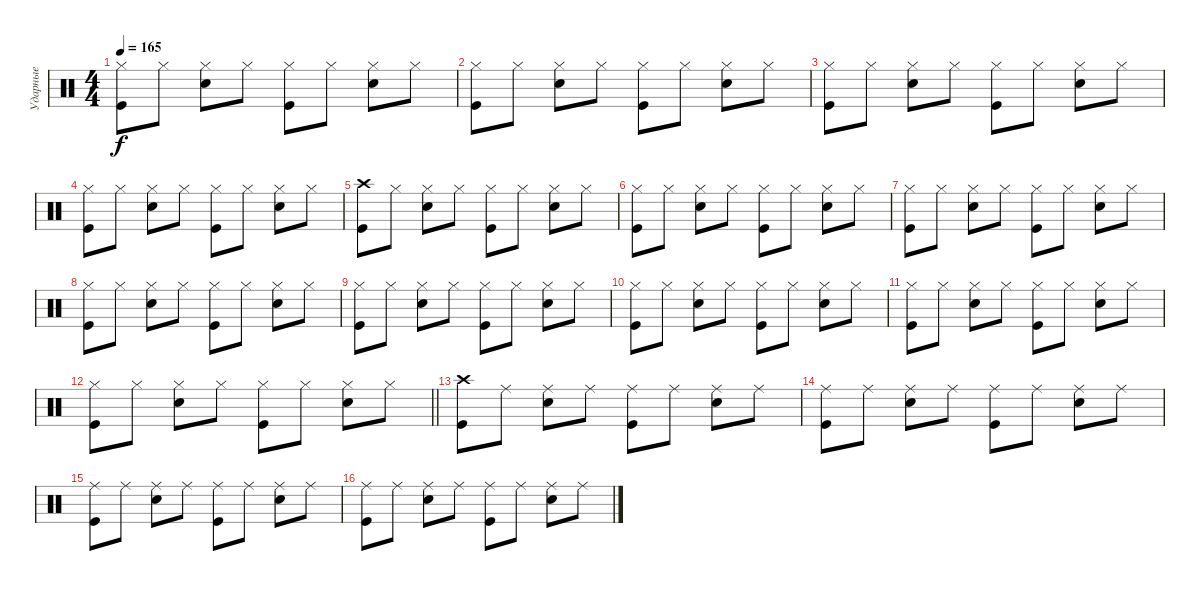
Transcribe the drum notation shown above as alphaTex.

\track ("Ударные" "Ударные") {instrument percussion}
\staff {score}
\articulation defaults
\ts (4 4)
\tempo 165
\clef neutral
\ks c
("Hi-Hat (closed)" "Kick (hit)").8{dy f} "Hi-Hat (closed)".8 ("Hi-Hat (closed)" "Snare (hit) 2").8 "Hi-Hat (closed)".8 ("Hi-Hat (closed)" "Kick (hit)").8 "Hi-Hat (closed)".8 ("Hi-Hat (closed)" "Snare (hit) 2").8 "Hi-Hat (closed)".8 |
("Hi-Hat (closed)" "Kick (hit)").8 "Hi-Hat (closed)".8 ("Hi-Hat (closed)" "Snare (hit) 2").8 "Hi-Hat (closed)".8 ("Hi-Hat (closed)" "Kick (hit)").8 "Hi-Hat (closed)".8 ("Hi-Hat (closed)" "Snare (hit) 2").8 "Hi-Hat (closed)".8 |
("Hi-Hat (closed)" "Kick (hit)").8 "Hi-Hat (closed)".8 ("Hi-Hat (closed)" "Snare (hit) 2").8 "Hi-Hat (closed)".8 ("Hi-Hat (closed)" "Kick (hit)").8 "Hi-Hat (closed)".8 ("Hi-Hat (closed)" "Snare (hit) 2").8 "Hi-Hat (closed)".8 |
("Hi-Hat (closed)" "Kick (hit)").8 "Hi-Hat (closed)".8 ("Hi-Hat (closed)" "Snare (hit) 2").8 "Hi-Hat (closed)".8 ("Hi-Hat (closed)" "Kick (hit)").8 "Hi-Hat (closed)".8 ("Hi-Hat (closed)" "Snare (hit) 2").8 "Hi-Hat (closed)".8 |
("Crash high (hit)" "Kick (hit)").8 "Hi-Hat (closed)".8 ("Hi-Hat (closed)" "Snare (hit) 2").8 "Hi-Hat (closed)".8 ("Hi-Hat (closed)" "Kick (hit)").8 "Hi-Hat (closed)".8 ("Hi-Hat (closed)" "Snare (hit) 2").8 "Hi-Hat (closed)".8 |
("Hi-Hat (closed)" "Kick (hit)").8 "Hi-Hat (closed)".8 ("Hi-Hat (closed)" "Snare (hit) 2").8 "Hi-Hat (closed)".8 ("Hi-Hat (closed)" "Kick (hit)").8 "Hi-Hat (closed)".8 ("Hi-Hat (closed)" "Snare (hit) 2").8 "Hi-Hat (closed)".8 |
("Hi-Hat (closed)" "Kick (hit)").8 "Hi-Hat (closed)".8 ("Hi-Hat (closed)" "Snare (hit) 2").8 "Hi-Hat (closed)".8 ("Hi-Hat (closed)" "Kick (hit)").8 "Hi-Hat (closed)".8 ("Hi-Hat (closed)" "Snare (hit) 2").8 "Hi-Hat (closed)".8 |
("Hi-Hat (closed)" "Kick (hit)").8 "Hi-Hat (closed)".8 ("Hi-Hat (closed)" "Snare (hit) 2").8 "Hi-Hat (closed)".8 ("Hi-Hat (closed)" "Kick (hit)").8 "Hi-Hat (closed)".8 ("Hi-Hat (closed)" "Snare (hit) 2").8 "Hi-Hat (closed)".8 |
("Hi-Hat (closed)" "Kick (hit)").8 "Hi-Hat (closed)".8 ("Hi-Hat (closed)" "Snare (hit) 2").8 "Hi-Hat (closed)".8 ("Hi-Hat (closed)" "Kick (hit)").8 "Hi-Hat (closed)".8 ("Hi-Hat (closed)" "Snare (hit) 2").8 "Hi-Hat (closed)".8 |
("Hi-Hat (closed)" "Kick (hit)").8 "Hi-Hat (closed)".8 ("Hi-Hat (closed)" "Snare (hit) 2").8 "Hi-Hat (closed)".8 ("Hi-Hat (closed)" "Kick (hit)").8 "Hi-Hat (closed)".8 ("Hi-Hat (closed)" "Snare (hit) 2").8 "Hi-Hat (closed)".8 |
("Hi-Hat (closed)" "Kick (hit)").8 "Hi-Hat (closed)".8 ("Hi-Hat (closed)" "Snare (hit) 2").8 "Hi-Hat (closed)".8 ("Hi-Hat (closed)" "Kick (hit)").8 "Hi-Hat (closed)".8 ("Hi-Hat (closed)" "Snare (hit) 2").8 "Hi-Hat (closed)".8 |
\barLineRight lightlight
("Hi-Hat (closed)" "Kick (hit)").8 "Hi-Hat (closed)".8 ("Hi-Hat (closed)" "Snare (hit) 2").8 "Hi-Hat (closed)".8 ("Hi-Hat (closed)" "Kick (hit)").8 "Hi-Hat (closed)".8 ("Hi-Hat (closed)" "Snare (hit) 2").8 "Hi-Hat (closed)".8 |
("Crash high (hit)" "Kick (hit)").8 "Ride (middle)".8 ("Ride (middle)" "Snare (hit) 2").8 "Ride (middle)".8 ("Ride (middle)" "Kick (hit)").8 "Ride (middle)".8 ("Ride (middle)" "Snare (hit) 2").8 "Ride (middle)".8 |
("Ride (middle)" "Kick (hit)").8 "Ride (middle)".8 ("Ride (middle)" "Snare (hit) 2").8 "Ride (middle)".8 ("Ride (middle)" "Kick (hit)").8 "Ride (middle)".8 ("Ride (middle)" "Snare (hit) 2").8 "Ride (middle)".8 |
("Ride (middle)" "Kick (hit)").8 "Ride (middle)".8 ("Ride (middle)" "Snare (hit) 2").8 "Ride (middle)".8 ("Ride (middle)" "Kick (hit)").8 "Ride (middle)".8 ("Ride (middle)" "Snare (hit) 2").8 "Ride (middle)".8 |
("Ride (middle)" "Kick (hit)").8 "Ride (middle)".8 ("Ride (middle)" "Snare (hit) 2").8 "Ride (middle)".8 ("Ride (middle)" "Kick (hit)").8 "Ride (middle)".8 ("Ride (middle)" "Snare (hit) 2").8 "Ride (middle)".8
